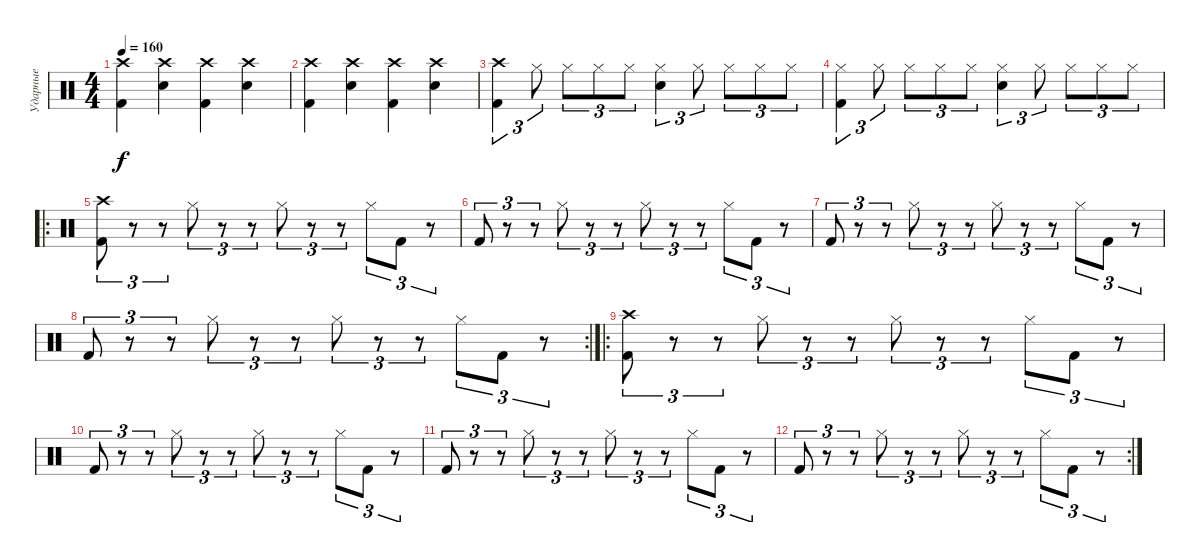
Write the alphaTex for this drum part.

\track ("Ударные" "Ударные") {instrument percussion}
\staff {score}
\articulation defaults
\ts (4 4)
\tempo 160
\clef neutral
\ks c
("Kick (hit) 2" "Crash high (hit)").4{dy f} ("Snare (hit) 2" "Crash high (hit)").4 ("Kick (hit) 2" "Crash high (hit)").4 ("Snare (hit) 2" "Crash high (hit)").4 |
("Kick (hit) 2" "Crash high (hit)").4 ("Snare (hit) 2" "Crash high (hit)").4 ("Kick (hit) 2" "Crash high (hit)").4 ("Snare (hit) 2" "Crash high (hit)").4 |
("Kick (hit) 2" "Crash high (hit)").4{tu (3 2)} "Hi-Hat (closed)".8{tu (3 2)} "Hi-Hat (closed)".8{tu (3 2)} "Hi-Hat (closed)".8{tu (3 2)} "Hi-Hat (closed)".8{tu (3 2)} ("Hi-Hat (closed)" "Snare (hit) 2").4{tu (3 2)} "Hi-Hat (closed)".8{tu (3 2)} "Hi-Hat (closed)".8{tu (3 2)} "Hi-Hat (closed)".8{tu (3 2)} "Hi-Hat (closed)".8{tu (3 2)} |
("Kick (hit) 2" "Hi-Hat (closed)").4{tu (3 2)} "Hi-Hat (closed)".8{tu (3 2)} "Hi-Hat (closed)".8{tu (3 2)} "Hi-Hat (closed)".8{tu (3 2)} "Hi-Hat (closed)".8{tu (3 2)} ("Hi-Hat (closed)" "Snare (hit) 2").4{tu (3 2)} "Hi-Hat (closed)".8{tu (3 2)} "Hi-Hat (closed)".8{tu (3 2)} "Hi-Hat (closed)".8{tu (3 2)} "Hi-Hat (closed)".8{tu (3 2)} |
\ro
("Kick (hit) 2" "Crash high (hit)").8{tu (3 2)} r.8{tu (3 2)} r.8{tu (3 2)} "Hi-Hat (closed)".8{tu (3 2)} r.8{tu (3 2)} r.8{tu (3 2)} "Hi-Hat (closed)".8{tu (3 2)} r.8{tu (3 2)} r.8{tu (3 2)} "Hi-Hat (closed)".8{tu (3 2)} "Kick (hit) 2".8{tu (3 2)} r.8{tu (3 2)} |
"Kick (hit) 2".8{tu (3 2)} r.8{tu (3 2)} r.8{tu (3 2)} "Hi-Hat (closed)".8{tu (3 2)} r.8{tu (3 2)} r.8{tu (3 2)} "Hi-Hat (closed)".8{tu (3 2)} r.8{tu (3 2)} r.8{tu (3 2)} "Hi-Hat (closed)".8{tu (3 2)} "Kick (hit) 2".8{tu (3 2)} r.8{tu (3 2)} |
"Kick (hit) 2".8{tu (3 2)} r.8{tu (3 2)} r.8{tu (3 2)} "Hi-Hat (closed)".8{tu (3 2)} r.8{tu (3 2)} r.8{tu (3 2)} "Hi-Hat (closed)".8{tu (3 2)} r.8{tu (3 2)} r.8{tu (3 2)} "Hi-Hat (closed)".8{tu (3 2)} "Kick (hit) 2".8{tu (3 2)} r.8{tu (3 2)} |
\rc 2 "Kick (hit) 2".8{tu (3 2)}
r.8{tu (3 2)} r.8{tu (3 2)} "Hi-Hat (closed)".8{tu (3 2)} r.8{tu (3 2)} r.8{tu (3 2)} "Hi-Hat (closed)".8{tu (3 2)} r.8{tu (3 2)} r.8{tu (3 2)} "Hi-Hat (closed)".8{tu (3 2)} "Kick (hit) 2".8{tu (3 2)} r.8{tu (3 2)} |
\ro
("Kick (hit) 2" "Crash high (hit)").8{tu (3 2)} r.8{tu (3 2)} r.8{tu (3 2)} "Hi-Hat (closed)".8{tu (3 2)} r.8{tu (3 2)} r.8{tu (3 2)} "Hi-Hat (closed)".8{tu (3 2)} r.8{tu (3 2)} r.8{tu (3 2)} "Hi-Hat (closed)".8{tu (3 2)} "Kick (hit) 2".8{tu (3 2)} r.8{tu (3 2)} |
"Kick (hit) 2".8{tu (3 2)} r.8{tu (3 2)} r.8{tu (3 2)} "Hi-Hat (closed)".8{tu (3 2)} r.8{tu (3 2)} r.8{tu (3 2)} "Hi-Hat (closed)".8{tu (3 2)} r.8{tu (3 2)} r.8{tu (3 2)} "Hi-Hat (closed)".8{tu (3 2)} "Kick (hit) 2".8{tu (3 2)} r.8{tu (3 2)} |
"Kick (hit) 2".8{tu (3 2)} r.8{tu (3 2)} r.8{tu (3 2)} "Hi-Hat (closed)".8{tu (3 2)} r.8{tu (3 2)} r.8{tu (3 2)} "Hi-Hat (closed)".8{tu (3 2)} r.8{tu (3 2)} r.8{tu (3 2)} "Hi-Hat (closed)".8{tu (3 2)} "Kick (hit) 2".8{tu (3 2)} r.8{tu (3 2)} |
\rc 2 "Kick (hit) 2".8{tu (3 2)}
r.8{tu (3 2)} r.8{tu (3 2)} "Hi-Hat (closed)".8{tu (3 2)} r.8{tu (3 2)} r.8{tu (3 2)} "Hi-Hat (closed)".8{tu (3 2)} r.8{tu (3 2)} r.8{tu (3 2)} "Hi-Hat (closed)".8{tu (3 2)} "Kick (hit) 2".8{tu (3 2)} r.8{tu (3 2)}
